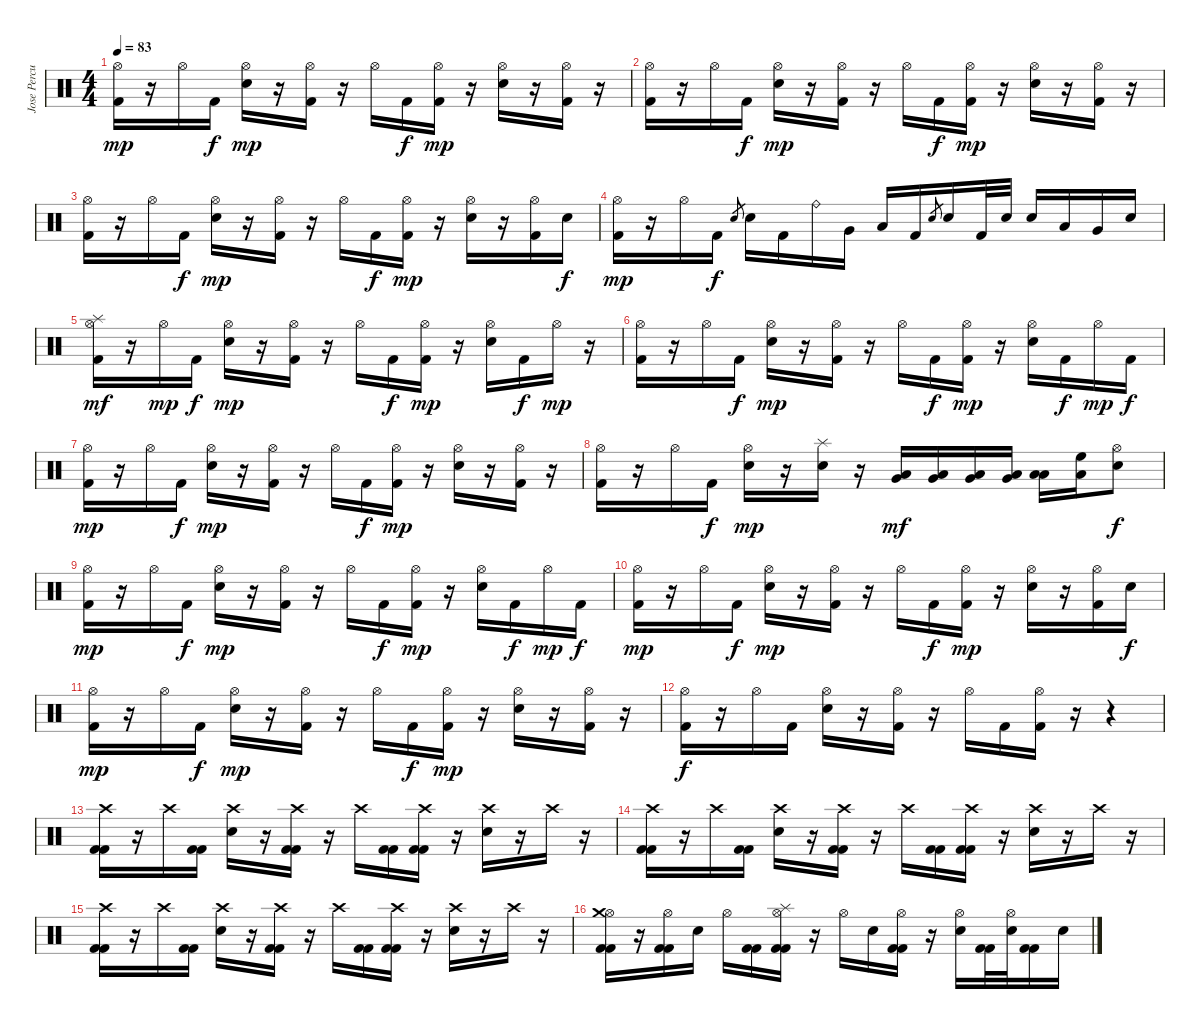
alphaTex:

\track ("Jose Percusilas" "Jose Percu") {instrument percussion}
\staff {score}
\articulation defaults
\ts (4 4)
\tempo 83
\clef neutral
\ks c
("Hi-Hat (open)" "Kick (hit) 2").16{dy mp} r.16 "Hi-Hat (open)".16 "Kick (hit) 2".16{dy f} ("Hi-Hat (open)" "Electric Snare (hit)").16{dy mp} r.16 ("Hi-Hat (open)" "Kick (hit) 2").16 r.16 "Hi-Hat (open)".16 "Kick (hit) 2".16{dy f} ("Hi-Hat (open)" "Kick (hit) 2").16{dy mp} r.16 ("Hi-Hat (open)" "Electric Snare (hit)").16 r.16 ("Hi-Hat (open)" "Kick (hit) 2").16 r.16 |
("Hi-Hat (open)" "Kick (hit) 2").16 r.16 "Hi-Hat (open)".16 "Kick (hit) 2".16{dy f} ("Hi-Hat (open)" "Electric Snare (hit)").16{dy mp} r.16 ("Hi-Hat (open)" "Kick (hit) 2").16 r.16 "Hi-Hat (open)".16 "Kick (hit) 2".16{dy f} ("Hi-Hat (open)" "Kick (hit) 2").16{dy mp} r.16 ("Hi-Hat (open)" "Electric Snare (hit)").16 r.16 ("Hi-Hat (open)" "Kick (hit) 2").16 r.16 |
("Hi-Hat (open)" "Kick (hit) 2").16 r.16 "Hi-Hat (open)".16 "Kick (hit) 2".16{dy f} ("Hi-Hat (open)" "Electric Snare (hit)").16{dy mp} r.16 ("Hi-Hat (open)" "Kick (hit) 2").16 r.16 "Hi-Hat (open)".16 "Kick (hit) 2".16{dy f} ("Hi-Hat (open)" "Kick (hit) 2").16{dy mp} r.16 ("Hi-Hat (open)" "Electric Snare (hit)").16 r.16 ("Hi-Hat (open)" "Kick (hit) 2").16 "Electric Snare (hit)".16{dy f} |
("Hi-Hat (open)" "Kick (hit) 2").16{dy mp} r.16 "Hi-Hat (open)".16 "Kick (hit) 2".16{dy f} "Electric Snare (hit)".8{gr} "Electric Snare (hit)".16 "Kick (hit) 2".16 "Ride (bell)".16 "Very Low Tom (hit)".16 "Low Floor Tom (hit)".16 "Kick (hit) 2".16 "Electric Snare (hit)".8{gr} "Electric Snare (hit)".16 "Kick (hit) 2".32 "Electric Snare (hit)".32 "Electric Snare (hit)".16 "Low Tom (hit)".16 "Very Low Tom (hit)".16 "Electric Snare (hit)".16 |
("Hi-Hat (open)" "Splash (hit)" "Kick (hit) 2").16{dy mf} r.16 "Hi-Hat (open)".16{dy mp} "Kick (hit) 2".16{dy f} ("Hi-Hat (open)" "Electric Snare (hit)").16{dy mp} r.16 ("Hi-Hat (open)" "Kick (hit) 2").16 r.16 "Hi-Hat (open)".16 "Kick (hit) 2".16{dy f} ("Hi-Hat (open)" "Kick (hit) 2").16{dy mp} r.16 ("Hi-Hat (open)" "Electric Snare (hit)").16 "Kick (hit) 2".16{dy f} "Hi-Hat (open)".16{dy mp} r.16 |
("Hi-Hat (open)" "Kick (hit) 2").16 r.16 "Hi-Hat (open)".16 "Kick (hit) 2".16{dy f} ("Hi-Hat (open)" "Electric Snare (hit)").16{dy mp} r.16 ("Hi-Hat (open)" "Kick (hit) 2").16 r.16 "Hi-Hat (open)".16 "Kick (hit) 2".16{dy f} ("Hi-Hat (open)" "Kick (hit) 2").16{dy mp} r.16 ("Hi-Hat (open)" "Electric Snare (hit)").16 "Kick (hit) 2".16{dy f} "Hi-Hat (open)".16{dy mp} "Kick (hit) 2".16{dy f} |
("Hi-Hat (open)" "Kick (hit) 2").16{dy mp} r.16 "Hi-Hat (open)".16 "Kick (hit) 2".16{dy f} ("Hi-Hat (open)" "Electric Snare (hit)").16{dy mp} r.16 ("Hi-Hat (open)" "Kick (hit) 2").16 r.16 "Hi-Hat (open)".16 "Kick (hit) 2".16{dy f} ("Hi-Hat (open)" "Kick (hit) 2").16{dy mp} r.16 ("Hi-Hat (open)" "Electric Snare (hit)").16 r.16 ("Hi-Hat (open)" "Kick (hit) 2").16 r.16 |
("Hi-Hat (open)" "Kick (hit) 2").16 r.16 "Hi-Hat (open)".16 "Kick (hit) 2".16{dy f} ("Hi-Hat (open)" "Electric Snare (hit)").16{dy mp} r.16 ("Splash (hit)" "Electric Snare (hit)").16 r.16 ("Low Tom (hit)" "Very Low Tom (hit)").16{dy mf} ("Low Tom (hit)" "Very Low Tom (hit)").16 ("Low Tom (hit)" "Very Low Tom (hit)").16 ("Low Tom (hit)" "Very Low Tom (hit)").16 ("Low Tom (hit)" "Low Floor Tom (hit)").16 ("High Floor Tom (hit)" "Low Floor Tom (hit)").16 ("Hi-Hat (open)" "Electric Snare (hit)").8{dy f} |
("Hi-Hat (open)" "Kick (hit) 2").16{dy mp} r.16 "Hi-Hat (open)".16 "Kick (hit) 2".16{dy f} ("Hi-Hat (open)" "Electric Snare (hit)").16{dy mp} r.16 ("Hi-Hat (open)" "Kick (hit) 2").16 r.16 "Hi-Hat (open)".16 "Kick (hit) 2".16{dy f} ("Hi-Hat (open)" "Kick (hit) 2").16{dy mp} r.16 ("Hi-Hat (open)" "Electric Snare (hit)").16 "Kick (hit) 2".16{dy f} "Hi-Hat (open)".16{dy mp} "Kick (hit) 2".16{dy f} |
("Hi-Hat (open)" "Kick (hit) 2").16{dy mp} r.16 "Hi-Hat (open)".16 "Kick (hit) 2".16{dy f} ("Hi-Hat (open)" "Electric Snare (hit)").16{dy mp} r.16 ("Hi-Hat (open)" "Kick (hit) 2").16 r.16 "Hi-Hat (open)".16 "Kick (hit) 2".16{dy f} ("Hi-Hat (open)" "Kick (hit) 2").16{dy mp} r.16 ("Hi-Hat (open)" "Electric Snare (hit)").16 r.16 ("Hi-Hat (open)" "Kick (hit) 2").16 "Electric Snare (hit)".16{dy f} |
("Hi-Hat (open)" "Kick (hit) 2").16{dy mp} r.16 "Hi-Hat (open)".16 "Kick (hit) 2".16{dy f} ("Hi-Hat (open)" "Electric Snare (hit)").16{dy mp} r.16 ("Hi-Hat (open)" "Kick (hit) 2").16 r.16 "Hi-Hat (open)".16 "Kick (hit) 2".16{dy f} ("Hi-Hat (open)" "Kick (hit) 2").16{dy mp} r.16 ("Hi-Hat (open)" "Electric Snare (hit)").16 r.16 ("Hi-Hat (open)" "Kick (hit) 2").16 r.16 |
("Hi-Hat (open)" "Kick (hit) 2").16{dy f} r.16 "Hi-Hat (open)".16 "Kick (hit) 2".16 ("Hi-Hat (open)" "Electric Snare (hit)").16 r.16 ("Hi-Hat (open)" "Kick (hit) 2").16 r.16 "Hi-Hat (open)".16 "Kick (hit) 2".16 ("Hi-Hat (open)" "Kick (hit) 2").16 r.16 r.4 |
("Crash high (hit)" "Kick (hit) 2" "Kick (hit) 2").16 r.16 "Crash high (hit)".16 ("Kick (hit) 2" "Kick (hit) 2").16 ("Crash high (hit)" "Electric Snare (hit)").16 r.16 ("Crash high (hit)" "Kick (hit) 2" "Kick (hit) 2").16 r.16 "Crash high (hit)".16 ("Kick (hit) 2" "Kick (hit) 2").16 ("Crash high (hit)" "Kick (hit) 2" "Kick (hit) 2").16 r.16 ("Crash high (hit)" "Electric Snare (hit)").16 r.16 "Crash high (hit)".16 r.16 |
("Crash high (hit)" "Kick (hit) 2" "Kick (hit) 2").16 r.16 "Crash high (hit)".16 ("Kick (hit) 2" "Kick (hit) 2").16 ("Crash high (hit)" "Electric Snare (hit)").16 r.16 ("Crash high (hit)" "Kick (hit) 2" "Kick (hit) 2").16 r.16 "Crash high (hit)".16 ("Kick (hit) 2" "Kick (hit) 2").16 ("Crash high (hit)" "Kick (hit) 2" "Kick (hit) 2").16 r.16 ("Crash high (hit)" "Electric Snare (hit)").16 r.16 "Crash high (hit)".16 r.16 |
("Crash high (hit)" "Kick (hit) 2" "Kick (hit) 2").16 r.16 "Crash high (hit)".16 ("Kick (hit) 2" "Kick (hit) 2").16 ("Crash high (hit)" "Electric Snare (hit)").16 r.16 ("Crash high (hit)" "Kick (hit) 2" "Kick (hit) 2").16 r.16 "Crash high (hit)".16 ("Kick (hit) 2" "Kick (hit) 2").16 ("Crash high (hit)" "Kick (hit) 2" "Kick (hit) 2").16 r.16 ("Crash high (hit)" "Electric Snare (hit)").16 r.16 "Crash high (hit)".16 r.16 |
("Hi-Hat (open)" "Crash medium (hit)" "Kick (hit) 2" "Kick (hit) 2").16 r.16 ("Hi-Hat (open)" "Kick (hit) 2" "Kick (hit) 2").16 "Electric Snare (hit)".16 "Hi-Hat (open)".16 ("Kick (hit) 2" "Kick (hit) 2").16 ("Hi-Hat (open)" "Splash (hit)" "Kick (hit) 2" "Kick (hit) 2").16 r.16 "Hi-Hat (open)".16 "Electric Snare (hit)".16 ("Hi-Hat (open)" "Kick (hit) 2" "Kick (hit) 2").16 r.16 ("Hi-Hat (open)" "Electric Snare (hit)").16 ("Kick (hit) 2" "Kick (hit) 2").32 ("Hi-Hat (open)" "Electric Snare (hit)").32 ("Kick (hit) 2" "Kick (hit) 2").16 "Electric Snare (hit)".16
